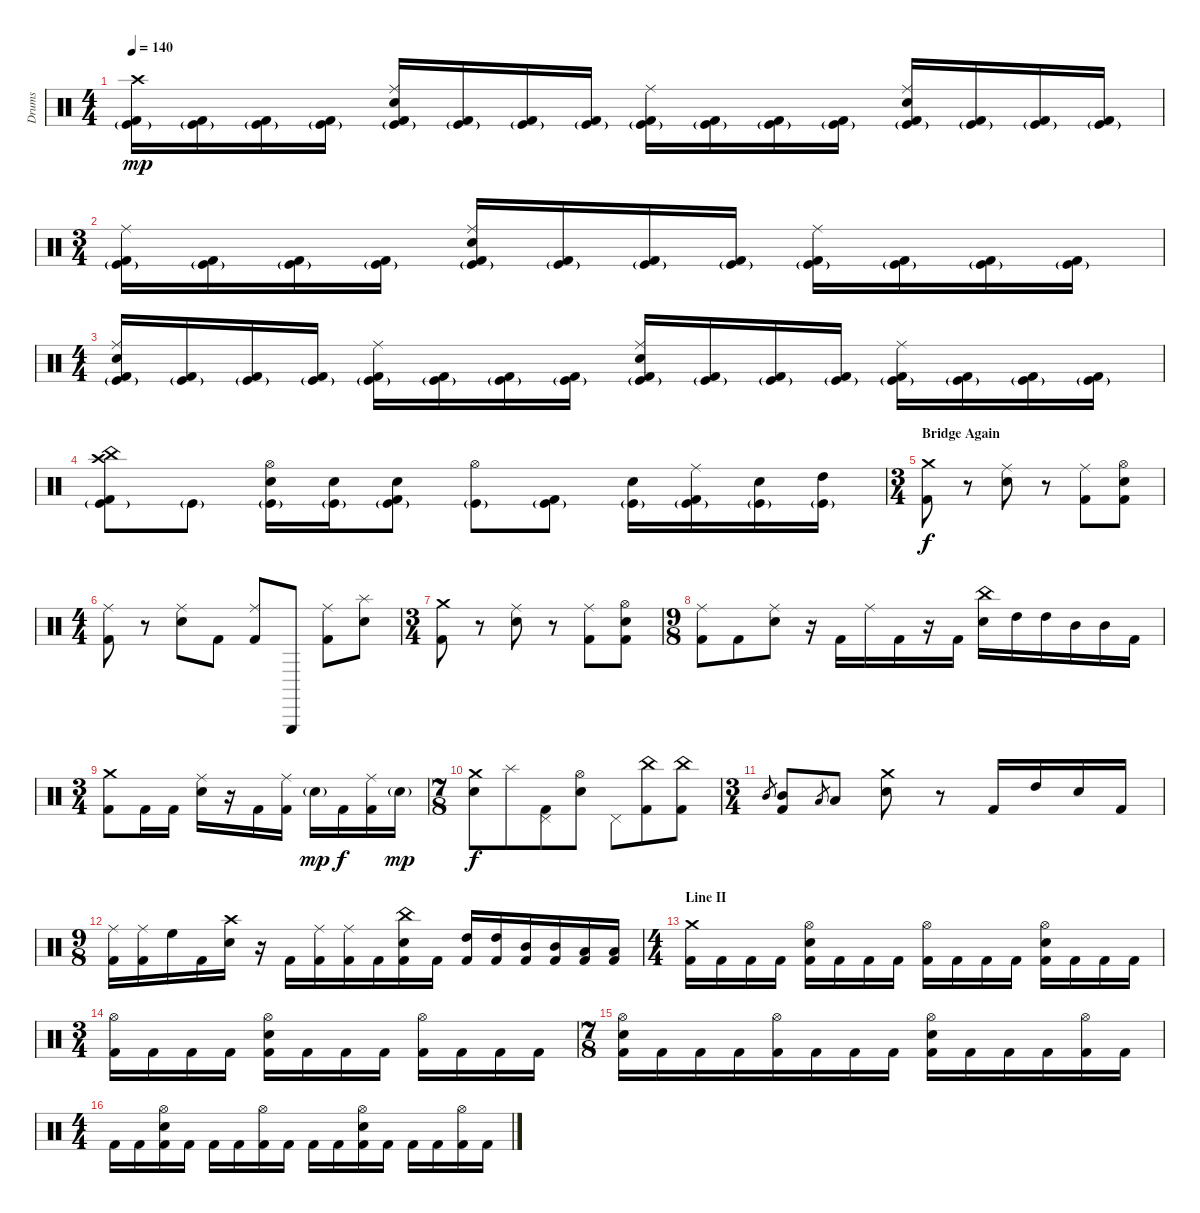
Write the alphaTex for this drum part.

\track ("Drums" "Drums") {instrument percussion}
\staff {score}
\articulation defaults
\ts (4 4)
\tempo 140
\clef neutral
\ks c
("Crash high (hit)" "Kick (hit) 2" "Kick (hit)"{g}).16{dy mp} ("Kick (hit) 2" "Kick (hit)"{g}).16 ("Kick (hit) 2" "Kick (hit)"{g}).16 ("Kick (hit) 2" "Kick (hit)"{g}).16 ("Ride (middle)" "Electric Snare (hit)" "Kick (hit) 2" "Kick (hit)"{g}).16 ("Kick (hit) 2" "Kick (hit)"{g}).16 ("Kick (hit) 2" "Kick (hit)"{g}).16 ("Kick (hit) 2" "Kick (hit)"{g}).16 ("Ride (middle)" "Kick (hit) 2" "Kick (hit)"{g}).16 ("Kick (hit) 2" "Kick (hit)"{g}).16 ("Kick (hit) 2" "Kick (hit)"{g}).16 ("Kick (hit) 2" "Kick (hit)"{g}).16 ("Ride (middle)" "Electric Snare (hit)" "Kick (hit) 2" "Kick (hit)"{g}).16 ("Kick (hit) 2" "Kick (hit)"{g}).16 ("Kick (hit) 2" "Kick (hit)"{g}).16 ("Kick (hit) 2" "Kick (hit)"{g}).16 |
\ts (3 4)
("Ride (middle)" "Kick (hit) 2" "Kick (hit)"{g}).16 ("Kick (hit) 2" "Kick (hit)"{g}).16 ("Kick (hit) 2" "Kick (hit)"{g}).16 ("Kick (hit) 2" "Kick (hit)"{g}).16 ("Ride (middle)" "Electric Snare (hit)" "Kick (hit) 2" "Kick (hit)"{g}).16 ("Kick (hit) 2" "Kick (hit)"{g}).16 ("Kick (hit) 2" "Kick (hit)"{g}).16 ("Kick (hit) 2" "Kick (hit)"{g}).16 ("Ride (middle)" "Kick (hit) 2" "Kick (hit)"{g}).16 ("Kick (hit) 2" "Kick (hit)"{g}).16 ("Kick (hit) 2" "Kick (hit)"{g}).16 ("Kick (hit) 2" "Kick (hit)"{g}).16 |
\ts (4 4)
("Ride (middle)" "Electric Snare (hit)" "Kick (hit) 2" "Kick (hit)"{g}).16 ("Kick (hit) 2" "Kick (hit)"{g}).16 ("Kick (hit) 2" "Kick (hit)"{g}).16 ("Kick (hit) 2" "Kick (hit)"{g}).16 ("Ride (middle)" "Kick (hit) 2" "Kick (hit)"{g}).16 ("Kick (hit) 2" "Kick (hit)"{g}).16 ("Kick (hit) 2" "Kick (hit)"{g}).16 ("Kick (hit) 2" "Kick (hit)"{g}).16 ("Ride (middle)" "Electric Snare (hit)" "Kick (hit) 2" "Kick (hit)"{g}).16 ("Kick (hit) 2" "Kick (hit)"{g}).16 ("Kick (hit) 2" "Kick (hit)"{g}).16 ("Kick (hit) 2" "Kick (hit)"{g}).16 ("Ride (middle)" "Kick (hit) 2" "Kick (hit)"{g}).16 ("Kick (hit) 2" "Kick (hit)"{g}).16 ("Kick (hit) 2" "Kick (hit)"{g}).16 ("Kick (hit) 2" "Kick (hit)"{g}).16 |
("China (hit)" "Crash high (hit)" "Kick (hit) 2" "Kick (hit)"{g}).8 "Kick (hit)"{g}.8 ("Hi-Hat (open)" "Electric Snare (hit)" "Kick (hit)"{g}).16 ("Electric Snare (hit)" "Kick (hit)"{g}).16 ("Electric Snare (hit)" "Kick (hit) 2" "Kick (hit)"{g}).8 ("Hi-Hat (open)" "Kick (hit)"{g}).8 ("Kick (hit) 2" "Kick (hit)"{g}).8 ("Electric Snare (hit)" "Kick (hit)"{g}).16 ("Ride (middle)" "Kick (hit) 2" "Kick (hit)"{g}).16 ("Electric Snare (hit)" "Kick (hit)"{g}).16 ("High Tom (hit)" "Kick (hit)"{g}).16 |
\ts (3 4)
\section ("" "Bridge Again")
("Crash medium (hit)" "Kick (hit) 2").8{dy f} r.8 ("Ride (middle)" "Electric Snare (hit)").8 r.8 ("Ride (middle)" "Kick (hit) 2").8 ("Hi-Hat (open)" "Electric Snare (hit)" "Kick (hit) 2").8 |
\ts (4 4)
("Ride (middle)" "Kick (hit) 2").8 r.8 ("Ride (middle)" "Electric Snare (hit)").8 "Kick (hit) 2".8 ("Ride (middle)" "Kick (hit) 2").8 "Triangle (hit)".8 ("Ride (middle)" "Kick (hit) 2").8 ("Splash (hit)" "Electric Snare (hit)").8 |
\ts (3 4)
("Crash medium (hit)" "Kick (hit) 2").8 r.8 ("Ride (middle)" "Electric Snare (hit)").8 r.8 ("Ride (middle)" "Kick (hit) 2").8 ("Hi-Hat (open)" "Electric Snare (hit)" "Kick (hit) 2").8 |
\ts (9 8)
("Ride (middle)" "Kick (hit) 2").8 "Kick (hit) 2".8 ("Ride (middle)" "Electric Snare (hit)").8 r.16 "Kick (hit) 2".16 "Ride (middle)".16 "Kick (hit) 2".16 r.16 "Kick (hit) 2".16 ("China (hit)" "Electric Snare (hit)").16 "High Tom (hit)".16 "High Tom (hit)".16 "Mid Tom (hit)".16 "Mid Tom (hit)".16 "Kick (hit) 2".16 |
\ts (3 4)
("Crash medium (hit)" "Kick (hit) 2").8 "Kick (hit) 2".16 "Kick (hit) 2".16 ("Ride (middle)" "Electric Snare (hit)").16 r.16 "Kick (hit) 2".16 ("Ride (middle)" "Kick (hit) 2").16 "Electric Snare (hit)"{g}.16{dy mp} "Kick (hit) 2".16{dy f} ("Ride (middle)" "Kick (hit) 2").16 "Electric Snare (hit)"{g}.16{dy mp} |
\ts (7 8)
("Crash medium (hit)" "Electric Snare (hit)").8{dy f} "Splash (hit)".8 ("Pedal Hi-Hat (hit)" "Kick (hit) 2").8 ("Hi-Hat (open)" "Electric Snare (hit)").8 "Pedal Hi-Hat (hit)".8 ("China (hit)" "Kick (hit) 2").8 ("China (hit)" "Kick (hit) 2").8 |
\ts (3 4)
"Mid Tom (hit)".8{gr} ("Mid Tom (hit)" "Kick (hit) 2").8 "Low Tom (hit)".8{gr} "Low Tom (hit)".8 ("Crash medium (hit)" "Electric Snare (hit)").8 r.8 "Kick (hit) 2".16 "High Tom (hit)".16 "Electric Snare (hit)".16 "Kick (hit) 2".16 |
\ts (9 8)
("Ride (middle)" "Kick (hit) 2").16 ("Ride (middle)" "Kick (hit) 2").16 "High Floor Tom (hit)".16 "Kick (hit) 2".16 ("Crash high (hit)" "Electric Snare (hit)").16 r.16 "Kick (hit) 2".16 ("Ride (middle)" "Kick (hit) 2").16 ("Ride (middle)" "Kick (hit) 2").16 "Kick (hit) 2".16 ("China (hit)" "Electric Snare (hit)" "Kick (hit) 2").16 "Kick (hit) 2".16 ("High Tom (hit)" "Kick (hit) 2").16 ("High Tom (hit)" "Kick (hit) 2").16 ("Mid Tom (hit)" "Kick (hit) 2").16 ("Mid Tom (hit)" "Kick (hit) 2").16 ("Low Tom (hit)" "Kick (hit) 2").16 ("Low Tom (hit)" "Kick (hit) 2").16 |
\ts (4 4)
\section ("" "Line II")
("Crash medium (hit)" "Kick (hit) 2").16 "Kick (hit) 2".16 "Kick (hit) 2".16 "Kick (hit) 2".16 ("Hi-Hat (open)" "Electric Snare (hit)" "Kick (hit) 2").16 "Kick (hit) 2".16 "Kick (hit) 2".16 "Kick (hit) 2".16 ("Hi-Hat (open)" "Kick (hit) 2").16 "Kick (hit) 2".16 "Kick (hit) 2".16 "Kick (hit) 2".16 ("Hi-Hat (open)" "Electric Snare (hit)" "Kick (hit) 2").16 "Kick (hit) 2".16 "Kick (hit) 2".16 "Kick (hit) 2".16 |
\ts (3 4)
("Hi-Hat (open)" "Kick (hit) 2").16 "Kick (hit) 2".16 "Kick (hit) 2".16 "Kick (hit) 2".16 ("Hi-Hat (open)" "Electric Snare (hit)" "Kick (hit) 2").16 "Kick (hit) 2".16 "Kick (hit) 2".16 "Kick (hit) 2".16 ("Hi-Hat (open)" "Kick (hit) 2").16 "Kick (hit) 2".16 "Kick (hit) 2".16 "Kick (hit) 2".16 |
\ts (7 8)
("Hi-Hat (open)" "Electric Snare (hit)" "Kick (hit) 2").16 "Kick (hit) 2".16 "Kick (hit) 2".16 "Kick (hit) 2".16 ("Hi-Hat (open)" "Kick (hit) 2").16 "Kick (hit) 2".16 "Kick (hit) 2".16 "Kick (hit) 2".16 ("Hi-Hat (open)" "Electric Snare (hit)" "Kick (hit) 2").16 "Kick (hit) 2".16 "Kick (hit) 2".16 "Kick (hit) 2".16 ("Hi-Hat (open)" "Kick (hit) 2").16 "Kick (hit) 2".16 |
\ts (4 4)
"Kick (hit) 2".16 "Kick (hit) 2".16 ("Hi-Hat (open)" "Electric Snare (hit)" "Kick (hit) 2").16 "Kick (hit) 2".16 "Kick (hit) 2".16 "Kick (hit) 2".16 ("Hi-Hat (open)" "Kick (hit) 2").16 "Kick (hit) 2".16 "Kick (hit) 2".16 "Kick (hit) 2".16 ("Hi-Hat (open)" "Electric Snare (hit)" "Kick (hit) 2").16 "Kick (hit) 2".16 "Kick (hit) 2".16 "Kick (hit) 2".16 ("Hi-Hat (open)" "Kick (hit) 2").16 "Kick (hit) 2".16
